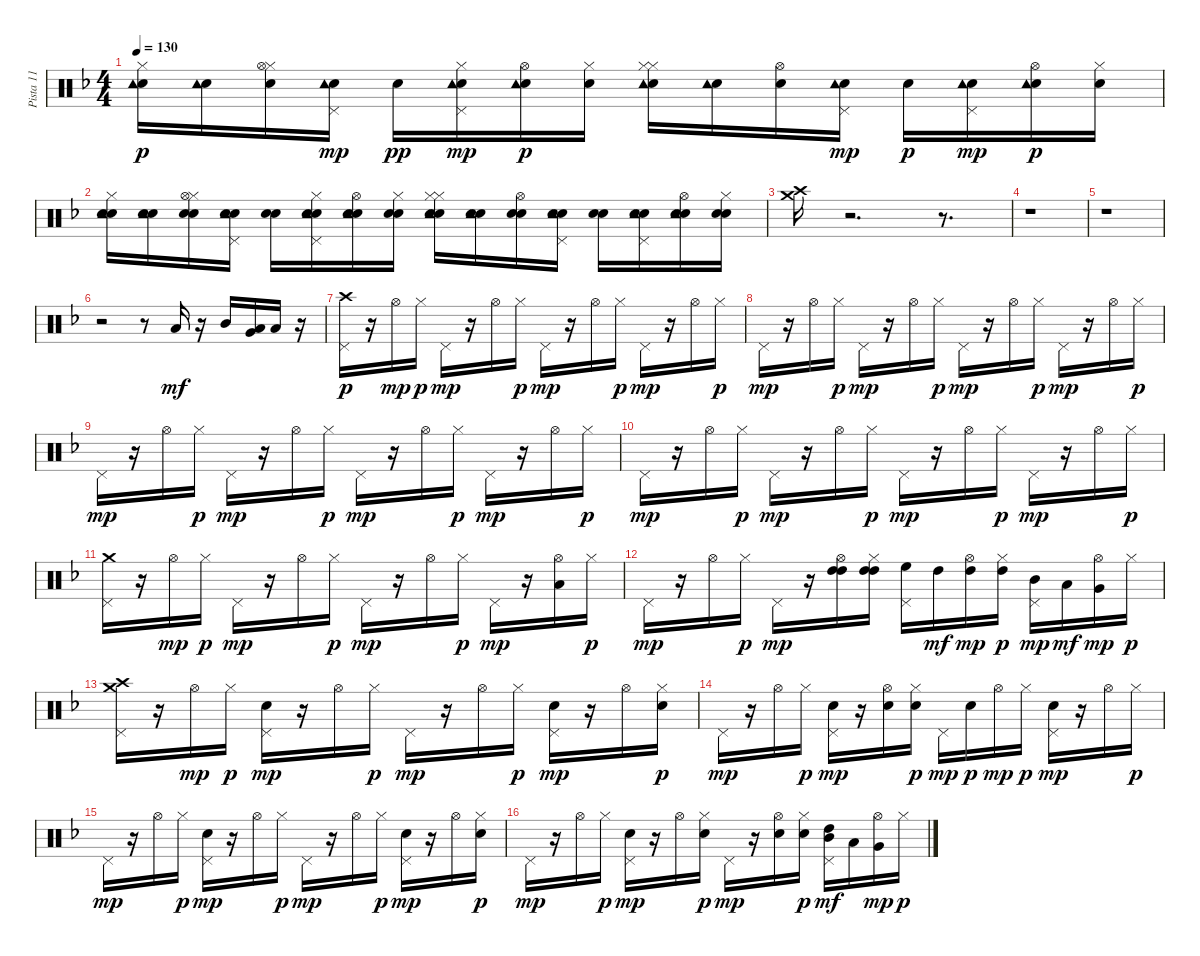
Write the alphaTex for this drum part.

\track ("Pista 11" "Pista 11") {instrument percussion}
\staff {score}
\articulation defaults
\ts (4 4)
\tempo 130
\clef neutral
\ks dminor
("Snare (hit) 2" "Tambourine (hit)" "Hi-Hat (closed)").16{dy p} ("Snare (hit) 2" "Tambourine (hit)").16 ("Snare (hit) 2" "Hi-Hat (closed)" "Hi-Hat (open)").16 ("Snare (hit) 2" "Tambourine (hit)" "Pedal Hi-Hat (hit)").16{dy mp} "Snare (hit) 2".16{dy pp} ("Snare (hit) 2" "Tambourine (hit)" "Hi-Hat (closed)" "Pedal Hi-Hat (hit)").16{dy mp} ("Snare (hit) 2" "Tambourine (hit)" "Hi-Hat (open)").16{dy p} ("Snare (hit) 2" "Hi-Hat (closed)").16 ("Snare (hit) 2" "Tambourine (hit)" "Hi-Hat (closed)" "Hi-Hat (closed)").16 ("Snare (hit) 2" "Tambourine (hit)").16 ("Snare (hit) 2" "Hi-Hat (open)").16 ("Snare (hit) 2" "Tambourine (hit)" "Pedal Hi-Hat (hit)").16{dy mp} "Snare (hit) 2".16{dy p} ("Snare (hit) 2" "Tambourine (hit)" "Pedal Hi-Hat (hit)").16{dy mp} ("Snare (hit) 2" "Tambourine (hit)" "Hi-Hat (open)").16{dy p} ("Snare (hit) 2" "Hi-Hat (closed)").16 |
("Snare (hit) 2" "Tambourine (hit)" "Hi-Hat (closed)" "Snare (hit) 2").16 ("Snare (hit) 2" "Tambourine (hit)" "Snare (hit) 2").16 ("Snare (hit) 2" "Hi-Hat (closed)" "Hi-Hat (open)" "Snare (hit) 2").16 ("Snare (hit) 2" "Tambourine (hit)" "Pedal Hi-Hat (hit)" "Snare (hit) 2").16 ("Snare (hit) 2" "Snare (hit) 2").16 ("Snare (hit) 2" "Tambourine (hit)" "Hi-Hat (closed)" "Pedal Hi-Hat (hit)" "Snare (hit) 2").16 ("Snare (hit) 2" "Tambourine (hit)" "Hi-Hat (open)" "Snare (hit) 2").16 ("Snare (hit) 2" "Hi-Hat (closed)" "Snare (hit) 2").16 ("Snare (hit) 2" "Tambourine (hit)" "Hi-Hat (closed)" "Hi-Hat (closed)" "Snare (hit) 2").16 ("Snare (hit) 2" "Tambourine (hit)" "Snare (hit) 2").16 ("Snare (hit) 2" "Hi-Hat (open)" "Snare (hit) 2").16 ("Snare (hit) 2" "Tambourine (hit)" "Pedal Hi-Hat (hit)" "Snare (hit) 2").16 ("Snare (hit) 2" "Snare (hit) 2").16 ("Snare (hit) 2" "Tambourine (hit)" "Pedal Hi-Hat (hit)" "Snare (hit) 2").16 ("Snare (hit) 2" "Tambourine (hit)" "Hi-Hat (open)" "Snare (hit) 2").16 ("Snare (hit) 2" "Hi-Hat (closed)" "Snare (hit) 2").16 |
("Crash high (hit)" "Crash medium (hit)").16 r.2{d} r.8{d} |
r.1 |
r.1 |
r.2 r.8 "Low Floor Tom (hit)".16{dy mf} r.16 "Mid Tom (hit)".16 ("Low Tom (hit)" "Very Low Tom (hit)").16 "Low Floor Tom (hit)".16 r.16 |
("Pedal Hi-Hat (hit)" "Crash high (hit)").16{dy p} r.16 "Hi-Hat (open)".16{dy mp} "Hi-Hat (closed)".16{dy p} "Pedal Hi-Hat (hit)".16{dy mp} r.16 "Hi-Hat (open)".16 "Hi-Hat (closed)".16{dy p} "Pedal Hi-Hat (hit)".16{dy mp} r.16 "Hi-Hat (open)".16 "Hi-Hat (closed)".16{dy p} "Pedal Hi-Hat (hit)".16{dy mp} r.16 "Hi-Hat (open)".16 "Hi-Hat (closed)".16{dy p} |
"Pedal Hi-Hat (hit)".16{dy mp} r.16 "Hi-Hat (open)".16 "Hi-Hat (closed)".16{dy p} "Pedal Hi-Hat (hit)".16{dy mp} r.16 "Hi-Hat (open)".16 "Hi-Hat (closed)".16{dy p} "Pedal Hi-Hat (hit)".16{dy mp} r.16 "Hi-Hat (open)".16 "Hi-Hat (closed)".16{dy p} "Pedal Hi-Hat (hit)".16{dy mp} r.16 "Hi-Hat (open)".16 "Hi-Hat (closed)".16{dy p} |
"Pedal Hi-Hat (hit)".16{dy mp} r.16 "Hi-Hat (open)".16 "Hi-Hat (closed)".16{dy p} "Pedal Hi-Hat (hit)".16{dy mp} r.16 "Hi-Hat (open)".16 "Hi-Hat (closed)".16{dy p} "Pedal Hi-Hat (hit)".16{dy mp} r.16 "Hi-Hat (open)".16 "Hi-Hat (closed)".16{dy p} "Pedal Hi-Hat (hit)".16{dy mp} r.16 "Hi-Hat (open)".16 "Hi-Hat (closed)".16{dy p} |
"Pedal Hi-Hat (hit)".16{dy mp} r.16 "Hi-Hat (open)".16 "Hi-Hat (closed)".16{dy p} "Pedal Hi-Hat (hit)".16{dy mp} r.16 "Hi-Hat (open)".16 "Hi-Hat (closed)".16{dy p} "Pedal Hi-Hat (hit)".16{dy mp} r.16 "Hi-Hat (open)".16 "Hi-Hat (closed)".16{dy p} "Pedal Hi-Hat (hit)".16{dy mp} r.16 "Hi-Hat (open)".16 "Hi-Hat (closed)".16{dy p} |
("Pedal Hi-Hat (hit)" "Crash medium (hit)").16 r.16 "Hi-Hat (open)".16{dy mp} "Hi-Hat (closed)".16{dy p} "Pedal Hi-Hat (hit)".16{dy mp} r.16 "Hi-Hat (open)".16 "Hi-Hat (closed)".16{dy p} "Pedal Hi-Hat (hit)".16{dy mp} r.16 "Hi-Hat (open)".16 "Hi-Hat (closed)".16{dy p} "Pedal Hi-Hat (hit)".16{dy mp} r.16 ("Low Floor Tom (hit)" "Hi-Hat (open)").16 "Hi-Hat (closed)".16{dy p} |
"Pedal Hi-Hat (hit)".16{dy mp} r.16 "Hi-Hat (open)".16 "Hi-Hat (closed)".16{dy p} "Pedal Hi-Hat (hit)".16{dy mp} r.16 ("High Tom (hit)" "Hi-Hat (open)" "High Tom (hit)").16 ("High Tom (hit)" "Hi-Hat (closed)" "High Tom (hit)").16 ("High Floor Tom (hit)" "Pedal Hi-Hat (hit)").16 "High Tom (hit)".16{dy mf} ("High Tom (hit)" "Hi-Hat (open)").16{dy mp} ("High Tom (hit)" "Hi-Hat (closed)").16{dy p} ("Mid Tom (hit)" "Pedal Hi-Hat (hit)").16{dy mp} "Low Tom (hit)".16{dy mf} ("Very Low Tom (hit)" "Hi-Hat (open)").16{dy mp} "Hi-Hat (closed)".16{dy p} |
("Pedal Hi-Hat (hit)" "Crash high (hit)" "Crash medium (hit)").16 r.16 "Hi-Hat (open)".16{dy mp} "Hi-Hat (closed)".16{dy p} ("Snare (hit) 2" "Pedal Hi-Hat (hit)").16{dy mp} r.16 "Hi-Hat (open)".16 "Hi-Hat (closed)".16{dy p} "Pedal Hi-Hat (hit)".16{dy mp} r.16 "Hi-Hat (open)".16 "Hi-Hat (closed)".16{dy p} ("Snare (hit) 2" "Pedal Hi-Hat (hit)").16{dy mp} r.16 "Hi-Hat (open)".16 ("Electric Snare (hit)" "Hi-Hat (closed)").16{dy p} |
"Pedal Hi-Hat (hit)".16{dy mp} r.16 "Hi-Hat (open)".16 "Hi-Hat (closed)".16{dy p} ("Snare (hit) 2" "Pedal Hi-Hat (hit)").16{dy mp} r.16 ("Snare (hit) 2" "Hi-Hat (open)").16 ("Electric Snare (hit)" "Hi-Hat (closed)").16{dy p} "Pedal Hi-Hat (hit)".16{dy mp} "Snare (hit) 2".16{dy p} "Hi-Hat (open)".16{dy mp} "Hi-Hat (closed)".16{dy p} ("Snare (hit) 2" "Pedal Hi-Hat (hit)").16{dy mp} r.16 "Hi-Hat (open)".16 "Hi-Hat (closed)".16{dy p} |
"Pedal Hi-Hat (hit)".16{dy mp} r.16 "Hi-Hat (open)".16 "Hi-Hat (closed)".16{dy p} ("Snare (hit) 2" "Pedal Hi-Hat (hit)").16{dy mp} r.16 "Hi-Hat (open)".16 "Hi-Hat (closed)".16{dy p} "Pedal Hi-Hat (hit)".16{dy mp} r.16 "Hi-Hat (open)".16 "Hi-Hat (closed)".16{dy p} ("Snare (hit) 2" "Pedal Hi-Hat (hit)").16{dy mp} r.16 "Hi-Hat (open)".16 ("Electric Snare (hit)" "Hi-Hat (closed)").16{dy p} |
"Pedal Hi-Hat (hit)".16{dy mp} r.16 "Hi-Hat (open)".16 "Hi-Hat (closed)".16{dy p} ("Snare (hit) 2" "Pedal Hi-Hat (hit)").16{dy mp} r.16 "Hi-Hat (open)".16 ("Electric Snare (hit)" "Hi-Hat (closed)").16{dy p} "Pedal Hi-Hat (hit)".16{dy mp} r.16 ("Snare (hit) 2" "Hi-Hat (open)").16 ("Snare (hit) 2" "Hi-Hat (closed)").16{dy p} ("High Tom (hit)" "Pedal Hi-Hat (hit)" "Mid Tom (hit)").16{dy mf} "Low Tom (hit)".16 ("Very Low Tom (hit)" "Hi-Hat (open)").16{dy mp} "Hi-Hat (closed)".16{dy p}
